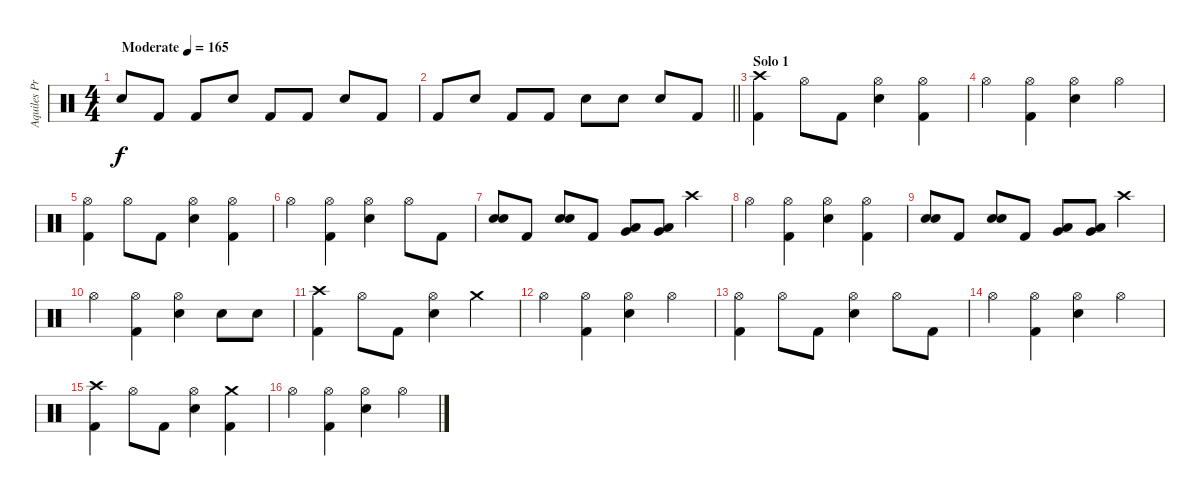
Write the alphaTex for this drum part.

\track ("Aquiles Priester" "Aquiles Pr") {instrument percussion}
\staff {score}
\articulation defaults
\ts (4 4)
\tempo (165 "Moderate")
\clef neutral
\ks c "Electric Snare (hit)".8{dy f} "Kick (hit) 2".8 "Kick (hit) 2".8 "Electric Snare (hit)".8 "Kick (hit) 2".8 "Kick (hit) 2".8 "Electric Snare (hit)".8 "Kick (hit) 2".8
|
\barLineRight lightlight "Kick (hit) 2".8 "Electric Snare (hit)".8 "Kick (hit) 2".8 "Kick (hit) 2".8 "Electric Snare (hit)".8 "Electric Snare (hit)".8 "Electric Snare (hit)".8 "Kick (hit) 2".8
|
\section ("" "Solo 1")
("Crash high (hit)" "Kick (hit) 2").4 "Hi-Hat (open)".8 "Kick (hit) 2".8 ("Hi-Hat (open)" "Electric Snare (hit)").4 ("Hi-Hat (open)" "Kick (hit) 2").4 |
"Hi-Hat (open)".4 ("Hi-Hat (open)" "Kick (hit) 2").4 ("Hi-Hat (open)" "Electric Snare (hit)").4 "Hi-Hat (open)".4 |
("Hi-Hat (open)" "Kick (hit) 2").4 "Hi-Hat (open)".8 "Kick (hit) 2".8 ("Hi-Hat (open)" "Electric Snare (hit)").4 ("Hi-Hat (open)" "Kick (hit) 2").4 |
"Hi-Hat (open)".4 ("Hi-Hat (open)" "Kick (hit) 2").4 ("Hi-Hat (open)" "Electric Snare (hit)").4 "Hi-Hat (open)".8 "Kick (hit) 2".8 |
("Electric Snare (hit)" "Electric Snare (hit)").8 "Kick (hit) 2".8 ("Electric Snare (hit)" "Electric Snare (hit)").8 "Kick (hit) 2".8 ("Very Low Tom (hit)" "Low Tom (hit)").8 ("Low Floor Tom (hit)" "Very Low Tom (hit)").8 "Crash high (hit)".4 |
"Hi-Hat (open)".4 ("Hi-Hat (open)" "Kick (hit) 2").4 ("Hi-Hat (open)" "Electric Snare (hit)").4 ("Hi-Hat (open)" "Kick (hit) 2").4 |
("Electric Snare (hit)" "Electric Snare (hit)").8 "Kick (hit) 2".8 ("Electric Snare (hit)" "Electric Snare (hit)").8 "Kick (hit) 2".8 ("Very Low Tom (hit)" "Low Tom (hit)").8 ("Low Floor Tom (hit)" "Very Low Tom (hit)").8 "Crash high (hit)".4 |
"Hi-Hat (open)".4 ("Hi-Hat (open)" "Kick (hit) 2").4 ("Hi-Hat (open)" "Electric Snare (hit)").4 "Electric Snare (hit)".8 "Electric Snare (hit)".8 |
("Crash high (hit)" "Kick (hit) 2").4 "Hi-Hat (open)".8 "Kick (hit) 2".8 ("Hi-Hat (open)" "Electric Snare (hit)").4 "Crash medium (hit)".4 |
"Hi-Hat (open)".4 ("Hi-Hat (open)" "Kick (hit) 2").4 ("Hi-Hat (open)" "Electric Snare (hit)").4 "Hi-Hat (open)".4 |
("Hi-Hat (open)" "Kick (hit) 2").4 "Hi-Hat (open)".8 "Kick (hit) 2".8 ("Hi-Hat (open)" "Electric Snare (hit)").4 "Hi-Hat (open)".8 "Kick (hit) 2".8 |
"Hi-Hat (open)".4 ("Hi-Hat (open)" "Kick (hit) 2").4 ("Hi-Hat (open)" "Electric Snare (hit)").4 "Hi-Hat (open)".4 |
("Crash high (hit)" "Kick (hit) 2").4 "Hi-Hat (open)".8 "Kick (hit) 2".8 ("Hi-Hat (open)" "Electric Snare (hit)").4 ("Crash medium (hit)" "Kick (hit) 2").4 |
"Hi-Hat (open)".4 ("Hi-Hat (open)" "Kick (hit) 2").4 ("Hi-Hat (open)" "Electric Snare (hit)").4 "Hi-Hat (open)".4
